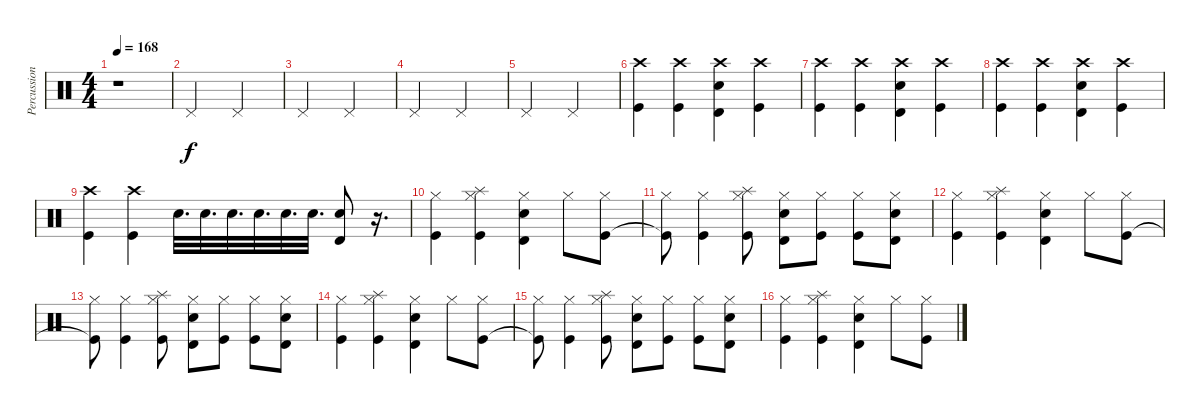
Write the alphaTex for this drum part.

\track ("Percussion" "Percussion") {instrument percussion}
\staff {score}
\articulation defaults
\ts (4 4)
\tempo 168
\clef neutral
\ks c
r.1{dy f} |
"Pedal Hi-Hat (hit)".2 "Pedal Hi-Hat (hit)".2 |
"Pedal Hi-Hat (hit)".2 "Pedal Hi-Hat (hit)".2 |
"Pedal Hi-Hat (hit)".2 "Pedal Hi-Hat (hit)".2 |
"Pedal Hi-Hat (hit)".2 "Pedal Hi-Hat (hit)".2 |
("Crash high (hit)" "Kick (hit)").4 ("Crash high (hit)" "Kick (hit)").4 ("Crash high (hit)" "Timbale high (hit)" "Electric Snare (hit)").4 ("Crash high (hit)" "Kick (hit)").4 |
("Crash high (hit)" "Kick (hit)").4 ("Crash high (hit)" "Kick (hit)").4 ("Crash high (hit)" "Timbale high (hit)" "Electric Snare (hit)").4 ("Crash high (hit)" "Kick (hit)").4 |
("Crash high (hit)" "Kick (hit)").4 ("Crash high (hit)" "Kick (hit)").4 ("Crash high (hit)" "Timbale high (hit)" "Electric Snare (hit)").4 ("Crash high (hit)" "Kick (hit)").4 |
("Crash high (hit)" "Kick (hit)").4 ("Crash high (hit)" "Kick (hit)").4 "Electric Snare (hit)".32{d} "Electric Snare (hit)".32{d} "Electric Snare (hit)".32{d} "Electric Snare (hit)".32{d} "Electric Snare (hit)".32{d} "Electric Snare (hit)".32{d} ("Electric Snare (hit)" "Timbale high (hit)").8 r.16{d} |
("Hi-Hat (closed)" "Kick (hit)").4 ("Hi-Hat (closed)" "Splash (hit)" "Kick (hit)").4 ("Hi-Hat (closed)" "Timbale high (hit)" "Electric Snare (hit)").4 "Hi-Hat (closed)".8 ("Hi-Hat (closed)" "Kick (hit)").8 |
("Hi-Hat (closed)" "Kick (hit)"{t}).8 ("Hi-Hat (closed)" "Kick (hit)").4 ("Hi-Hat (closed)" "Splash (hit)" "Kick (hit)").8 ("Hi-Hat (closed)" "Timbale high (hit)" "Electric Snare (hit)").8 ("Hi-Hat (closed)" "Kick (hit)").8 ("Hi-Hat (closed)" "Kick (hit)").8 ("Hi-Hat (closed)" "Timbale high (hit)" "Electric Snare (hit)").8 |
("Hi-Hat (closed)" "Kick (hit)").4 ("Hi-Hat (closed)" "Splash (hit)" "Kick (hit)").4 ("Hi-Hat (closed)" "Timbale high (hit)" "Electric Snare (hit)").4 "Hi-Hat (closed)".8 ("Hi-Hat (closed)" "Kick (hit)").8 |
("Hi-Hat (closed)" "Kick (hit)"{t}).8 ("Hi-Hat (closed)" "Kick (hit)").4 ("Hi-Hat (closed)" "Splash (hit)" "Kick (hit)").8 ("Hi-Hat (closed)" "Timbale high (hit)" "Electric Snare (hit)").8 ("Hi-Hat (closed)" "Kick (hit)").8 ("Hi-Hat (closed)" "Kick (hit)").8 ("Hi-Hat (closed)" "Timbale high (hit)" "Electric Snare (hit)").8 |
("Hi-Hat (closed)" "Kick (hit)").4 ("Hi-Hat (closed)" "Splash (hit)" "Kick (hit)").4 ("Hi-Hat (closed)" "Timbale high (hit)" "Electric Snare (hit)").4 "Hi-Hat (closed)".8 ("Hi-Hat (closed)" "Kick (hit)").8 |
("Hi-Hat (closed)" "Kick (hit)"{t}).8 ("Hi-Hat (closed)" "Kick (hit)").4 ("Hi-Hat (closed)" "Splash (hit)" "Kick (hit)").8 ("Hi-Hat (closed)" "Timbale high (hit)" "Electric Snare (hit)").8 ("Hi-Hat (closed)" "Kick (hit)").8 ("Hi-Hat (closed)" "Kick (hit)").8 ("Hi-Hat (closed)" "Timbale high (hit)" "Electric Snare (hit)").8 |
("Hi-Hat (closed)" "Kick (hit)").4 ("Hi-Hat (closed)" "Splash (hit)" "Kick (hit)").4 ("Hi-Hat (closed)" "Timbale high (hit)" "Electric Snare (hit)").4 "Hi-Hat (closed)".8 ("Hi-Hat (closed)" "Kick (hit)").8
